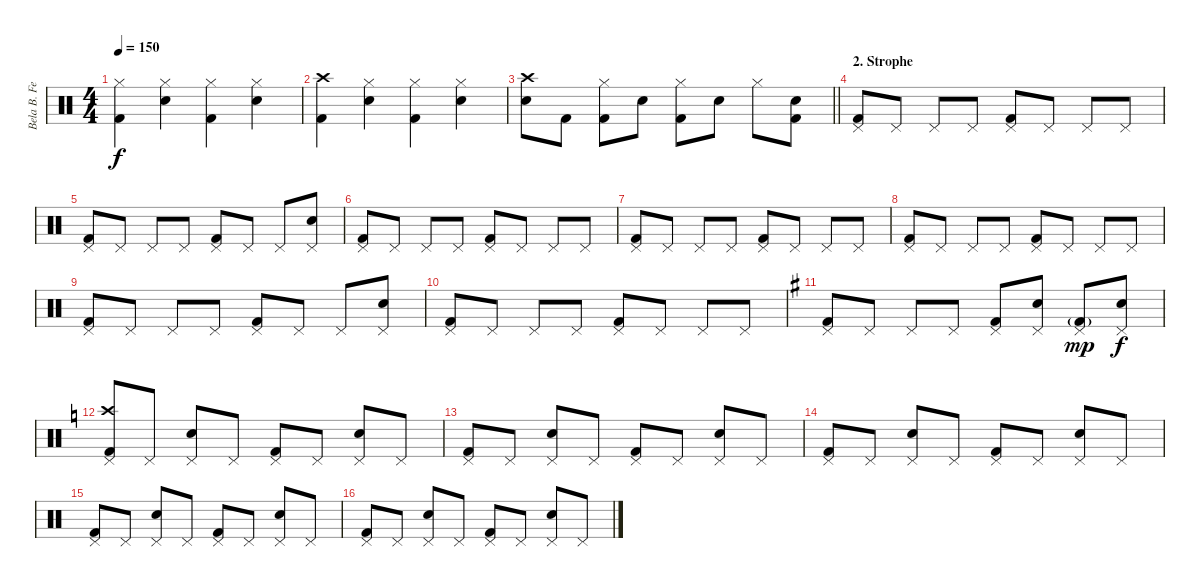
\track ("Bela B. Felsenheimer" "Bela B. Fe") {instrument percussion}
\staff {score}
\articulation defaults
\ts (4 4)
\tempo 150
\clef neutral
\ks c
("Kick (hit) 2" "Hi-Hat (closed)").4{dy f} ("Snare (hit) 2" "Hi-Hat (closed)").4 ("Kick (hit) 2" "Hi-Hat (closed)").4 ("Snare (hit) 2" "Hi-Hat (closed)").4 |
("Kick (hit) 2" "Crash high (hit)").4 ("Snare (hit) 2" "Hi-Hat (closed)").4 ("Kick (hit) 2" "Hi-Hat (closed)").4 ("Snare (hit) 2" "Hi-Hat (closed)").4 |
\barLineRight lightlight
("Crash high (hit)" "Snare (hit) 2").8 "Kick (hit) 2".8 ("Hi-Hat (closed)" "Kick (hit) 2").8 "Snare (hit) 2".8 ("Hi-Hat (closed)" "Kick (hit) 2").8 "Snare (hit) 2".8 "Hi-Hat (closed)".8 ("Snare (hit) 2" "Kick (hit) 2").8 |
\section ("" "2. Strophe")
("Pedal Hi-Hat (hit)" "Kick (hit) 2").8 "Pedal Hi-Hat (hit)".8 "Pedal Hi-Hat (hit)".8 "Pedal Hi-Hat (hit)".8 ("Pedal Hi-Hat (hit)" "Kick (hit) 2").8 "Pedal Hi-Hat (hit)".8 "Pedal Hi-Hat (hit)".8 "Pedal Hi-Hat (hit)".8 |
("Pedal Hi-Hat (hit)" "Kick (hit) 2").8 "Pedal Hi-Hat (hit)".8 "Pedal Hi-Hat (hit)".8 "Pedal Hi-Hat (hit)".8 ("Pedal Hi-Hat (hit)" "Kick (hit) 2").8 "Pedal Hi-Hat (hit)".8 "Pedal Hi-Hat (hit)".8 ("Pedal Hi-Hat (hit)" "Snare (hit) 2").8 |
("Pedal Hi-Hat (hit)" "Kick (hit) 2").8 "Pedal Hi-Hat (hit)".8 "Pedal Hi-Hat (hit)".8 "Pedal Hi-Hat (hit)".8 ("Pedal Hi-Hat (hit)" "Kick (hit) 2").8 "Pedal Hi-Hat (hit)".8 "Pedal Hi-Hat (hit)".8 "Pedal Hi-Hat (hit)".8 |
("Pedal Hi-Hat (hit)" "Kick (hit) 2").8 "Pedal Hi-Hat (hit)".8 "Pedal Hi-Hat (hit)".8 "Pedal Hi-Hat (hit)".8 ("Pedal Hi-Hat (hit)" "Kick (hit) 2").8 "Pedal Hi-Hat (hit)".8 "Pedal Hi-Hat (hit)".8 "Pedal Hi-Hat (hit)".8 |
("Pedal Hi-Hat (hit)" "Kick (hit) 2").8 "Pedal Hi-Hat (hit)".8 "Pedal Hi-Hat (hit)".8 "Pedal Hi-Hat (hit)".8 ("Pedal Hi-Hat (hit)" "Kick (hit) 2").8 "Pedal Hi-Hat (hit)".8 "Pedal Hi-Hat (hit)".8 "Pedal Hi-Hat (hit)".8 |
("Pedal Hi-Hat (hit)" "Kick (hit) 2").8 "Pedal Hi-Hat (hit)".8 "Pedal Hi-Hat (hit)".8 "Pedal Hi-Hat (hit)".8 ("Pedal Hi-Hat (hit)" "Kick (hit) 2").8 "Pedal Hi-Hat (hit)".8 "Pedal Hi-Hat (hit)".8 ("Pedal Hi-Hat (hit)" "Snare (hit) 2").8 |
("Pedal Hi-Hat (hit)" "Kick (hit) 2").8 "Pedal Hi-Hat (hit)".8 "Pedal Hi-Hat (hit)".8 "Pedal Hi-Hat (hit)".8 ("Pedal Hi-Hat (hit)" "Kick (hit) 2").8 "Pedal Hi-Hat (hit)".8 "Pedal Hi-Hat (hit)".8 "Pedal Hi-Hat (hit)".8 |
\ks g
("Pedal Hi-Hat (hit)" "Kick (hit) 2").8 "Pedal Hi-Hat (hit)".8 "Pedal Hi-Hat (hit)".8 "Pedal Hi-Hat (hit)".8 ("Pedal Hi-Hat (hit)" "Kick (hit) 2").8 ("Pedal Hi-Hat (hit)" "Snare (hit) 2").8 ("Kick (hit) 2"{g} "Pedal Hi-Hat (hit)").8{dy mp} ("Pedal Hi-Hat (hit)" "Snare (hit) 2").8{dy f} |
\ks c
("Pedal Hi-Hat (hit)" "Crash high (hit)" "Kick (hit) 2").8 "Pedal Hi-Hat (hit)".8 ("Pedal Hi-Hat (hit)" "Snare (hit) 2").8 "Pedal Hi-Hat (hit)".8 ("Pedal Hi-Hat (hit)" "Kick (hit) 2").8 "Pedal Hi-Hat (hit)".8 ("Pedal Hi-Hat (hit)" "Snare (hit) 2").8 "Pedal Hi-Hat (hit)".8 |
("Pedal Hi-Hat (hit)" "Kick (hit) 2").8 "Pedal Hi-Hat (hit)".8 ("Pedal Hi-Hat (hit)" "Snare (hit) 2").8 "Pedal Hi-Hat (hit)".8 ("Pedal Hi-Hat (hit)" "Kick (hit) 2").8 "Pedal Hi-Hat (hit)".8 ("Pedal Hi-Hat (hit)" "Snare (hit) 2").8 "Pedal Hi-Hat (hit)".8 |
("Pedal Hi-Hat (hit)" "Kick (hit) 2").8 "Pedal Hi-Hat (hit)".8 ("Pedal Hi-Hat (hit)" "Snare (hit) 2").8 "Pedal Hi-Hat (hit)".8 ("Pedal Hi-Hat (hit)" "Kick (hit) 2").8 "Pedal Hi-Hat (hit)".8 ("Pedal Hi-Hat (hit)" "Snare (hit) 2").8 "Pedal Hi-Hat (hit)".8 |
("Pedal Hi-Hat (hit)" "Kick (hit) 2").8 "Pedal Hi-Hat (hit)".8 ("Pedal Hi-Hat (hit)" "Snare (hit) 2").8 "Pedal Hi-Hat (hit)".8 ("Pedal Hi-Hat (hit)" "Kick (hit) 2").8 "Pedal Hi-Hat (hit)".8 ("Pedal Hi-Hat (hit)" "Snare (hit) 2").8 "Pedal Hi-Hat (hit)".8 |
("Pedal Hi-Hat (hit)" "Kick (hit) 2").8 "Pedal Hi-Hat (hit)".8 ("Pedal Hi-Hat (hit)" "Snare (hit) 2").8 "Pedal Hi-Hat (hit)".8 ("Pedal Hi-Hat (hit)" "Kick (hit) 2").8 "Pedal Hi-Hat (hit)".8 ("Pedal Hi-Hat (hit)" "Snare (hit) 2").8 "Pedal Hi-Hat (hit)".8
